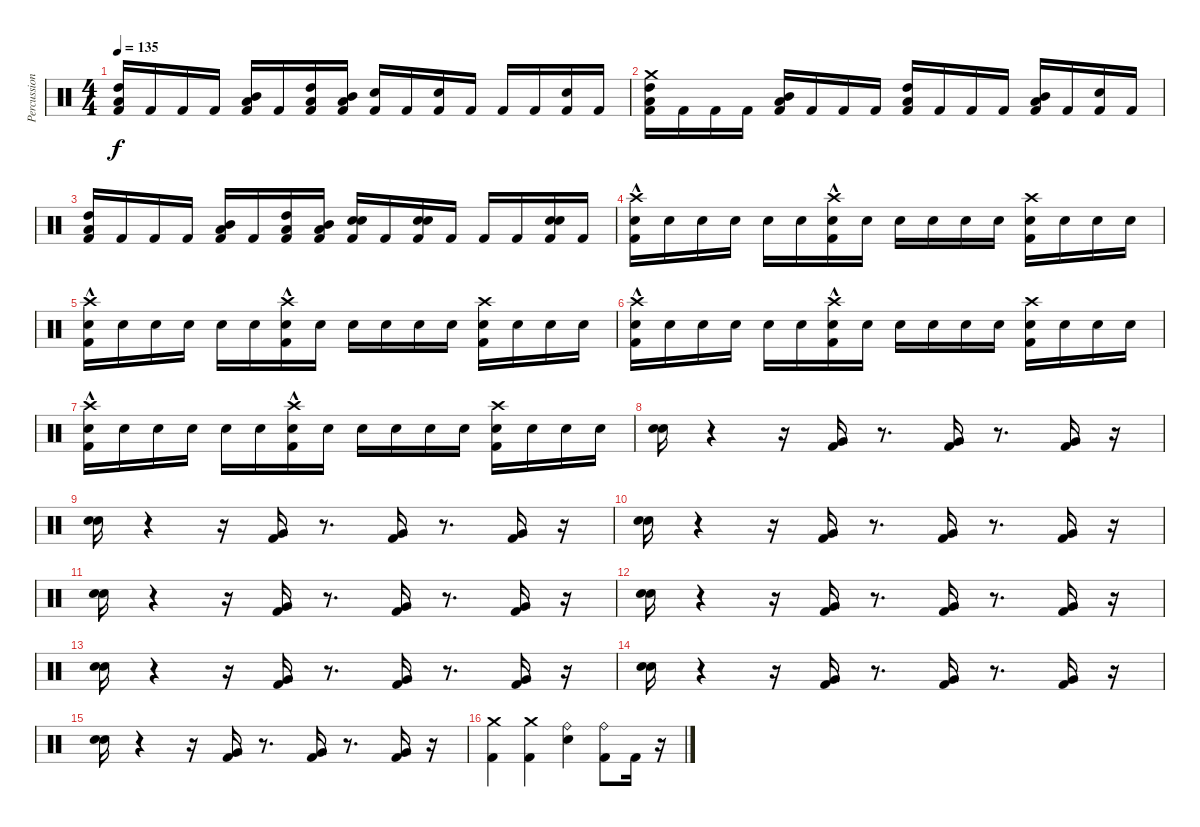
\track ("Percussion" "Percussion") {instrument percussion}
\staff {score}
\articulation defaults
\ts (4 4)
\tempo 135
\clef neutral
\ks c
("Kick (hit) 2" "Low Floor Tom (hit)" "High Tom (hit)").16{dy f} "Kick (hit) 2".16 "Kick (hit) 2".16 "Kick (hit) 2".16 ("Kick (hit) 2" "Low Floor Tom (hit)" "Mid Tom (hit)").16 "Kick (hit) 2".16 ("Kick (hit) 2" "Low Floor Tom (hit)" "High Tom (hit)").16 ("Kick (hit) 2" "Low Floor Tom (hit)" "Mid Tom (hit)").16 ("Kick (hit) 2" "Electric Snare (hit)").16 "Kick (hit) 2".16 ("Kick (hit) 2" "Electric Snare (hit)").16 "Kick (hit) 2".16 "Kick (hit) 2".16 "Kick (hit) 2".16 ("Kick (hit) 2" "Electric Snare (hit)").16 "Kick (hit) 2".16 |
("Kick (hit) 2" "Low Floor Tom (hit)" "High Tom (hit)" "Crash medium (hit)").16 "Kick (hit) 2".16 "Kick (hit) 2".16 "Kick (hit) 2".16 ("Kick (hit) 2" "Low Floor Tom (hit)" "Mid Tom (hit)").16 "Kick (hit) 2".16 "Kick (hit) 2".16 "Kick (hit) 2".16 ("Kick (hit) 2" "Low Floor Tom (hit)" "High Tom (hit)").16 "Kick (hit) 2".16 "Kick (hit) 2".16 "Kick (hit) 2".16 ("Kick (hit) 2" "Low Floor Tom (hit)" "Mid Tom (hit)").16 "Kick (hit) 2".16 ("Kick (hit) 2" "Electric Snare (hit)").16 "Kick (hit) 2".16 |
("Kick (hit) 2" "Low Floor Tom (hit)" "High Tom (hit)").16 "Kick (hit) 2".16 "Kick (hit) 2".16 "Kick (hit) 2".16 ("Kick (hit) 2" "Low Floor Tom (hit)" "Mid Tom (hit)").16 "Kick (hit) 2".16 ("Kick (hit) 2" "Low Floor Tom (hit)" "High Tom (hit)").16 ("Kick (hit) 2" "Low Floor Tom (hit)" "Mid Tom (hit)").16 ("Kick (hit) 2" "Snare (hit) 2" "Electric Snare (hit)").16 "Kick (hit) 2".16 ("Kick (hit) 2" "Snare (hit) 2" "Electric Snare (hit)").16 "Kick (hit) 2".16 "Kick (hit) 2".16 "Kick (hit) 2".16 ("Kick (hit) 2" "Snare (hit) 2" "Electric Snare (hit)").16 "Kick (hit) 2".16 |
("Kick (hit) 2" "Electric Snare (hit)" "Crash high (hit)"{hac}).16 "Electric Snare (hit)".16 "Electric Snare (hit)".16 "Electric Snare (hit)".16 "Electric Snare (hit)".16 "Electric Snare (hit)".16 ("Kick (hit) 2" "Electric Snare (hit)" "Crash high (hit)"{hac}).16 "Electric Snare (hit)".16 "Electric Snare (hit)".16 "Electric Snare (hit)".16 "Electric Snare (hit)".16 "Electric Snare (hit)".16 ("Kick (hit) 2" "Electric Snare (hit)" "Crash high (hit)").16 "Electric Snare (hit)".16 "Electric Snare (hit)".16 "Electric Snare (hit)".16 |
("Kick (hit) 2" "Electric Snare (hit)" "Crash high (hit)"{hac}).16 "Electric Snare (hit)".16 "Electric Snare (hit)".16 "Electric Snare (hit)".16 "Electric Snare (hit)".16 "Electric Snare (hit)".16 ("Kick (hit) 2" "Electric Snare (hit)" "Crash high (hit)"{hac}).16 "Electric Snare (hit)".16 "Electric Snare (hit)".16 "Electric Snare (hit)".16 "Electric Snare (hit)".16 "Electric Snare (hit)".16 ("Kick (hit) 2" "Electric Snare (hit)" "Crash high (hit)").16 "Electric Snare (hit)".16 "Electric Snare (hit)".16 "Electric Snare (hit)".16 |
("Kick (hit) 2" "Electric Snare (hit)" "Crash high (hit)"{hac}).16 "Electric Snare (hit)".16 "Electric Snare (hit)".16 "Electric Snare (hit)".16 "Electric Snare (hit)".16 "Electric Snare (hit)".16 ("Kick (hit) 2" "Electric Snare (hit)" "Crash high (hit)"{hac}).16 "Electric Snare (hit)".16 "Electric Snare (hit)".16 "Electric Snare (hit)".16 "Electric Snare (hit)".16 "Electric Snare (hit)".16 ("Kick (hit) 2" "Electric Snare (hit)" "Crash high (hit)").16 "Electric Snare (hit)".16 "Electric Snare (hit)".16 "Electric Snare (hit)".16 |
("Kick (hit) 2" "Electric Snare (hit)" "Crash high (hit)"{hac}).16 "Electric Snare (hit)".16 "Electric Snare (hit)".16 "Electric Snare (hit)".16 "Electric Snare (hit)".16 "Electric Snare (hit)".16 ("Kick (hit) 2" "Electric Snare (hit)" "Crash high (hit)"{hac}).16 "Electric Snare (hit)".16 "Electric Snare (hit)".16 "Electric Snare (hit)".16 "Electric Snare (hit)".16 "Electric Snare (hit)".16 ("Kick (hit) 2" "Electric Snare (hit)" "Crash high (hit)").16 "Electric Snare (hit)".16 "Electric Snare (hit)".16 "Electric Snare (hit)".16 |
("Snare (hit) 2" "Electric Snare (hit)").16 r.4 r.16 ("Kick (hit) 2" "Very Low Tom (hit)").16 r.8{d} ("Kick (hit) 2" "Very Low Tom (hit)").16 r.8{d} ("Kick (hit) 2" "Very Low Tom (hit)").16 r.16 |
("Snare (hit) 2" "Electric Snare (hit)").16 r.4 r.16 ("Kick (hit) 2" "Very Low Tom (hit)").16 r.8{d} ("Kick (hit) 2" "Very Low Tom (hit)").16 r.8{d} ("Kick (hit) 2" "Very Low Tom (hit)").16 r.16 |
("Snare (hit) 2" "Electric Snare (hit)").16 r.4 r.16 ("Kick (hit) 2" "Very Low Tom (hit)").16 r.8{d} ("Kick (hit) 2" "Very Low Tom (hit)").16 r.8{d} ("Kick (hit) 2" "Very Low Tom (hit)").16 r.16 |
("Snare (hit) 2" "Electric Snare (hit)").16 r.4 r.16 ("Kick (hit) 2" "Very Low Tom (hit)").16 r.8{d} ("Kick (hit) 2" "Very Low Tom (hit)").16 r.8{d} ("Kick (hit) 2" "Very Low Tom (hit)").16 r.16 |
("Snare (hit) 2" "Electric Snare (hit)").16 r.4 r.16 ("Kick (hit) 2" "Very Low Tom (hit)").16 r.8{d} ("Kick (hit) 2" "Very Low Tom (hit)").16 r.8{d} ("Kick (hit) 2" "Very Low Tom (hit)").16 r.16 |
("Snare (hit) 2" "Electric Snare (hit)").16 r.4 r.16 ("Kick (hit) 2" "Very Low Tom (hit)").16 r.8{d} ("Kick (hit) 2" "Very Low Tom (hit)").16 r.8{d} ("Kick (hit) 2" "Very Low Tom (hit)").16 r.16 |
("Snare (hit) 2" "Electric Snare (hit)").16 r.4 r.16 ("Kick (hit) 2" "Very Low Tom (hit)").16 r.8{d} ("Kick (hit) 2" "Very Low Tom (hit)").16 r.8{d} ("Kick (hit) 2" "Very Low Tom (hit)").16 r.16 |
("Snare (hit) 2" "Electric Snare (hit)").16 r.4 r.16 ("Kick (hit) 2" "Very Low Tom (hit)").16 r.8{d} ("Kick (hit) 2" "Very Low Tom (hit)").16 r.8{d} ("Kick (hit) 2" "Very Low Tom (hit)").16 r.16 |
("Kick (hit) 2" "Crash medium (hit)").4 ("Kick (hit) 2" "Crash medium (hit)").4 ("Electric Snare (hit)" "Ride (bell)").4 ("Kick (hit) 2" "Ride (bell)").8 "Kick (hit) 2".16 r.16
